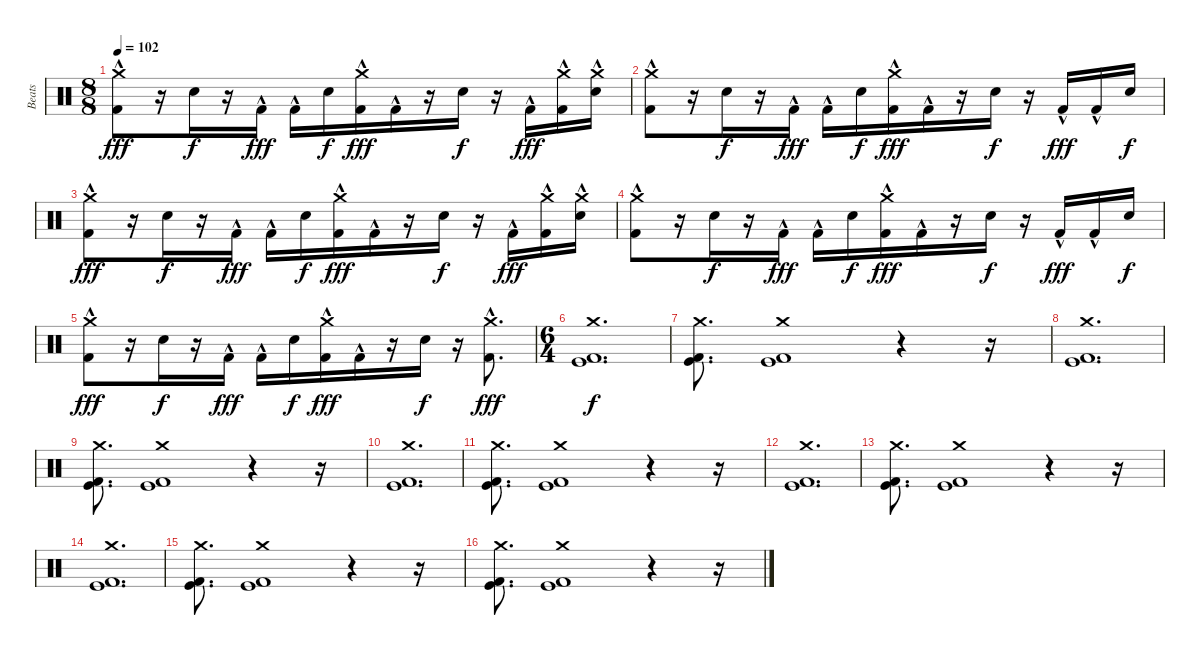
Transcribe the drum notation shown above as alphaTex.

\track ("Beats" "Beats") {instrument percussion}
\staff {score}
\articulation defaults
\ts (8 8)
\tempo 102
\clef neutral
\ks c
("Crash medium (hit)" "Kick (hit) 2"{hac}).8{dy fff} r.16 "Snare (hit) 2".16{dy f} r.16 "Kick (hit) 2"{hac}.16{dy fff} "Kick (hit) 2"{hac}.16 "Snare (hit) 2".16{dy f} ("Crash medium (hit)"{hac} "Kick (hit) 2"{hac}).16{dy fff} "Kick (hit) 2"{hac}.16 r.16 "Snare (hit) 2".16{dy f} r.16 "Kick (hit) 2"{hac}.16{dy fff} ("Crash medium (hit)"{hac} "Kick (hit) 2"{hac}).16 ("Crash medium (hit)"{hac} "Snare (hit) 2"{hac}).16 |
("Crash medium (hit)" "Kick (hit) 2"{hac}).8 r.16 "Snare (hit) 2".16{dy f} r.16 "Kick (hit) 2"{hac}.16{dy fff} "Kick (hit) 2"{hac}.16 "Snare (hit) 2".16{dy f} ("Crash medium (hit)"{hac} "Kick (hit) 2"{hac}).16{dy fff} "Kick (hit) 2"{hac}.16 r.16 "Snare (hit) 2".16{dy f} r.16 "Kick (hit) 2"{hac}.16{dy fff} "Kick (hit) 2"{hac}.16 "Snare (hit) 2".16{dy f} |
("Crash medium (hit)" "Kick (hit) 2"{hac}).8{dy fff} r.16 "Snare (hit) 2".16{dy f} r.16 "Kick (hit) 2"{hac}.16{dy fff} "Kick (hit) 2"{hac}.16 "Snare (hit) 2".16{dy f} ("Crash medium (hit)"{hac} "Kick (hit) 2"{hac}).16{dy fff} "Kick (hit) 2"{hac}.16 r.16 "Snare (hit) 2".16{dy f} r.16 "Kick (hit) 2"{hac}.16{dy fff} ("Crash medium (hit)"{hac} "Kick (hit) 2"{hac}).16 ("Crash medium (hit)"{hac} "Snare (hit) 2"{hac}).16 |
("Crash medium (hit)" "Kick (hit) 2"{hac}).8 r.16 "Snare (hit) 2".16{dy f} r.16 "Kick (hit) 2"{hac}.16{dy fff} "Kick (hit) 2"{hac}.16 "Snare (hit) 2".16{dy f} ("Crash medium (hit)"{hac} "Kick (hit) 2"{hac}).16{dy fff} "Kick (hit) 2"{hac}.16 r.16 "Snare (hit) 2".16{dy f} r.16 "Kick (hit) 2"{hac}.16{dy fff} "Kick (hit) 2"{hac}.16 "Snare (hit) 2".16{dy f} |
("Crash medium (hit)" "Kick (hit) 2"{hac}).8{dy fff} r.16 "Snare (hit) 2".16{dy f} r.16 "Kick (hit) 2"{hac}.16{dy fff} "Kick (hit) 2"{hac}.16 "Snare (hit) 2".16{dy f} ("Crash medium (hit)"{hac} "Kick (hit) 2"{hac}).16{dy fff} "Kick (hit) 2"{hac}.16 r.16 "Snare (hit) 2".16{dy f} r.16 ("Crash medium (hit)"{hac} "Kick (hit) 2"{hac}).8{d dy fff} |
\ts (6 4)
("Crash medium (hit)" "Kick (hit)" "Kick (hit) 2").1{d dy f} |
("Crash medium (hit)" "Kick (hit)" "Kick (hit) 2").8{d} ("Kick (hit) 2" "Kick (hit)" "Crash medium (hit)").1 r.4 r.16 |
("Crash medium (hit)" "Kick (hit)" "Kick (hit) 2").1{d} |
("Crash medium (hit)" "Kick (hit)" "Kick (hit) 2").8{d} ("Kick (hit) 2" "Kick (hit)" "Crash medium (hit)").1 r.4 r.16 |
("Crash medium (hit)" "Kick (hit)" "Kick (hit) 2").1{d} |
("Crash medium (hit)" "Kick (hit)" "Kick (hit) 2").8{d} ("Kick (hit) 2" "Kick (hit)" "Crash medium (hit)").1 r.4 r.16 |
("Crash medium (hit)" "Kick (hit)" "Kick (hit) 2").1{d} |
("Crash medium (hit)" "Kick (hit)" "Kick (hit) 2").8{d} ("Kick (hit) 2" "Kick (hit)" "Crash medium (hit)").1 r.4 r.16 |
("Crash medium (hit)" "Kick (hit)" "Kick (hit) 2").1{d} |
("Crash medium (hit)" "Kick (hit)" "Kick (hit) 2").8{d} ("Kick (hit) 2" "Kick (hit)" "Crash medium (hit)").1 r.4 r.16 |
("Crash medium (hit)" "Kick (hit)" "Kick (hit) 2").8{d} ("Kick (hit) 2" "Kick (hit)" "Crash medium (hit)").1 r.4 r.16
